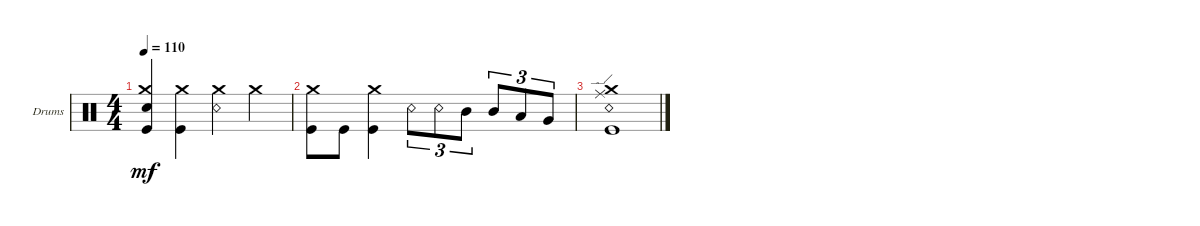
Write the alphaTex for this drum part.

\defaultSystemsLayout 4
\bracketExtendMode groupsimilarinstruments
\firstSystemTrackNameOrientation horizontal
\otherSystemsTrackNameOrientation horizontal
\track ("Drumkit" "Drums") {instrument percussion}
\staff {score}
\articulation defaults
\ts (4 4)
\tempo 110
\clef neutral
\ks c
("Kick (hit)" "Crash medium (hit)" "Snare (hit) 2").4{dy mf} ("Kick (hit)" "Crash medium (hit)").4 ("Snare (rim shot)" "Crash medium (hit)").4 "Crash medium (hit)".4 |
("Kick (hit)" "Crash medium (hit)").8 "Kick (hit)".8 ("Kick (hit)" "Crash medium (hit)").4 "Snare (rim shot)".8{tu (3 2)} "Snare (rim shot)".8{tu (3 2)} "Mid Tom (hit)".8{tu (3 2)} "Mid Tom (hit)".8{tu (3 2)} "Low Tom (hit)".8{tu (3 2)} "Very Low Tom (hit)".8{tu (3 2)} |
("Snare (rim shot)" "Kick (hit)" "Crash medium (hit)" "Ride (edge)").1
